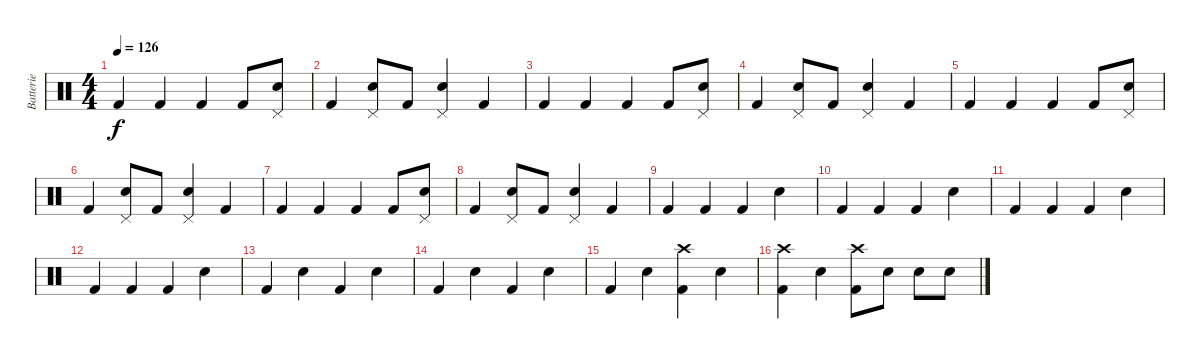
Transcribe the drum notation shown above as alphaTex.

\track ("Batterie" "Batterie") {instrument percussion}
\staff {score}
\articulation defaults
\ts (4 4)
\tempo 126
\clef neutral
\ks c "Kick (hit) 2".4{dy f} "Kick (hit) 2".4 "Kick (hit) 2".4 "Kick (hit) 2".8
("Pedal Hi-Hat (hit)" "Snare (hit) 2").8 |
"Kick (hit) 2".4 ("Pedal Hi-Hat (hit)" "Snare (hit) 2").8 "Kick (hit) 2".8 ("Pedal Hi-Hat (hit)" "Snare (hit) 2").4 "Kick (hit) 2".4 |
"Kick (hit) 2".4 "Kick (hit) 2".4 "Kick (hit) 2".4 "Kick (hit) 2".8 ("Pedal Hi-Hat (hit)" "Snare (hit) 2").8 |
"Kick (hit) 2".4 ("Pedal Hi-Hat (hit)" "Snare (hit) 2").8 "Kick (hit) 2".8 ("Pedal Hi-Hat (hit)" "Snare (hit) 2").4 "Kick (hit) 2".4 |
"Kick (hit) 2".4 "Kick (hit) 2".4 "Kick (hit) 2".4 "Kick (hit) 2".8 ("Pedal Hi-Hat (hit)" "Snare (hit) 2").8 |
"Kick (hit) 2".4 ("Pedal Hi-Hat (hit)" "Snare (hit) 2").8 "Kick (hit) 2".8 ("Pedal Hi-Hat (hit)" "Snare (hit) 2").4 "Kick (hit) 2".4 |
"Kick (hit) 2".4 "Kick (hit) 2".4 "Kick (hit) 2".4 "Kick (hit) 2".8 ("Pedal Hi-Hat (hit)" "Snare (hit) 2").8 |
"Kick (hit) 2".4 ("Pedal Hi-Hat (hit)" "Snare (hit) 2").8 "Kick (hit) 2".8 ("Pedal Hi-Hat (hit)" "Snare (hit) 2").4 "Kick (hit) 2".4 |
"Kick (hit) 2".4 "Kick (hit) 2".4 "Kick (hit) 2".4 "Snare (hit) 2".4 |
"Kick (hit) 2".4 "Kick (hit) 2".4 "Kick (hit) 2".4 "Snare (hit) 2".4 |
"Kick (hit) 2".4 "Kick (hit) 2".4 "Kick (hit) 2".4 "Snare (hit) 2".4 |
"Kick (hit) 2".4 "Kick (hit) 2".4 "Kick (hit) 2".4 "Snare (hit) 2".4 |
"Kick (hit) 2".4 "Snare (hit) 2".4 "Kick (hit) 2".4 "Snare (hit) 2".4 |
"Kick (hit) 2".4 "Snare (hit) 2".4 "Kick (hit) 2".4 "Snare (hit) 2".4 |
"Kick (hit) 2".4 "Snare (hit) 2".4 ("Crash high (hit)" "Kick (hit) 2").4 "Snare (hit) 2".4 |
("Crash high (hit)" "Kick (hit) 2").4 "Snare (hit) 2".4 ("Crash high (hit)" "Kick (hit) 2").8 "Snare (hit) 2".8 "Snare (hit) 2".8 "Snare (hit) 2".8
